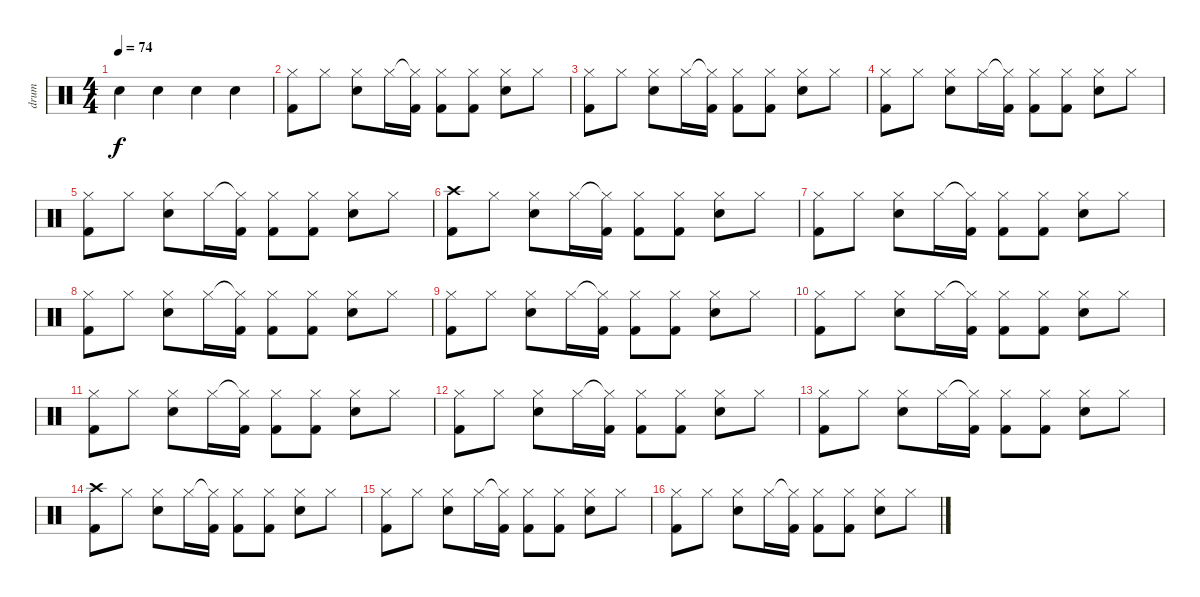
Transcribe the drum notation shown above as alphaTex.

\track ("drum" "drum") {instrument percussion}
\staff {score}
\articulation defaults
\ts (4 4)
\tempo 74
\clef neutral
\ks c "Snare (hit)".4{dy f} "Snare (hit)".4 "Snare (hit)".4 "Snare (hit)".4
|
("Hi-Hat (closed)" "Kick (hit) 2").8 "Hi-Hat (closed)".8 ("Hi-Hat (closed)" "Electric Snare (hit)").8 "Hi-Hat (closed)".16 ("Hi-Hat (closed)"{t} "Kick (hit) 2").16 ("Hi-Hat (closed)" "Kick (hit) 2").8 ("Hi-Hat (closed)" "Kick (hit) 2").8 ("Hi-Hat (closed)" "Electric Snare (hit)").8 "Hi-Hat (closed)".8 |
("Hi-Hat (closed)" "Kick (hit) 2").8 "Hi-Hat (closed)".8 ("Hi-Hat (closed)" "Electric Snare (hit)").8 "Hi-Hat (closed)".16 ("Hi-Hat (closed)"{t} "Kick (hit) 2").16 ("Hi-Hat (closed)" "Kick (hit) 2").8 ("Hi-Hat (closed)" "Kick (hit) 2").8 ("Hi-Hat (closed)" "Electric Snare (hit)").8 "Hi-Hat (closed)".8 |
("Hi-Hat (closed)" "Kick (hit) 2").8 "Hi-Hat (closed)".8 ("Hi-Hat (closed)" "Electric Snare (hit)").8 "Hi-Hat (closed)".16 ("Hi-Hat (closed)"{t} "Kick (hit) 2").16 ("Hi-Hat (closed)" "Kick (hit) 2").8 ("Hi-Hat (closed)" "Kick (hit) 2").8 ("Hi-Hat (closed)" "Electric Snare (hit)").8 "Hi-Hat (closed)".8 |
("Hi-Hat (closed)" "Kick (hit) 2").8 "Hi-Hat (closed)".8 ("Hi-Hat (closed)" "Electric Snare (hit)").8 "Hi-Hat (closed)".16 ("Hi-Hat (closed)"{t} "Kick (hit) 2").16 ("Hi-Hat (closed)" "Kick (hit) 2").8 ("Hi-Hat (closed)" "Kick (hit) 2").8 ("Hi-Hat (closed)" "Electric Snare (hit)").8 "Hi-Hat (closed)".8 |
("Crash high (hit)" "Kick (hit) 2").8 "Hi-Hat (closed)".8 ("Hi-Hat (closed)" "Electric Snare (hit)").8 "Hi-Hat (closed)".16 ("Hi-Hat (closed)"{t} "Kick (hit) 2").16 ("Hi-Hat (closed)" "Kick (hit) 2").8 ("Hi-Hat (closed)" "Kick (hit) 2").8 ("Hi-Hat (closed)" "Electric Snare (hit)").8 "Hi-Hat (closed)".8 |
("Hi-Hat (closed)" "Kick (hit) 2").8 "Hi-Hat (closed)".8 ("Hi-Hat (closed)" "Electric Snare (hit)").8 "Hi-Hat (closed)".16 ("Hi-Hat (closed)"{t} "Kick (hit) 2").16 ("Hi-Hat (closed)" "Kick (hit) 2").8 ("Hi-Hat (closed)" "Kick (hit) 2").8 ("Hi-Hat (closed)" "Electric Snare (hit)").8 "Hi-Hat (closed)".8 |
("Hi-Hat (closed)" "Kick (hit) 2").8 "Hi-Hat (closed)".8 ("Hi-Hat (closed)" "Electric Snare (hit)").8 "Hi-Hat (closed)".16 ("Hi-Hat (closed)"{t} "Kick (hit) 2").16 ("Hi-Hat (closed)" "Kick (hit) 2").8 ("Hi-Hat (closed)" "Kick (hit) 2").8 ("Hi-Hat (closed)" "Electric Snare (hit)").8 "Hi-Hat (closed)".8 |
("Hi-Hat (closed)" "Kick (hit) 2").8 "Hi-Hat (closed)".8 ("Hi-Hat (closed)" "Electric Snare (hit)").8 "Hi-Hat (closed)".16 ("Hi-Hat (closed)"{t} "Kick (hit) 2").16 ("Hi-Hat (closed)" "Kick (hit) 2").8 ("Hi-Hat (closed)" "Kick (hit) 2").8 ("Hi-Hat (closed)" "Electric Snare (hit)").8 "Hi-Hat (closed)".8 |
("Hi-Hat (closed)" "Kick (hit) 2").8 "Hi-Hat (closed)".8 ("Hi-Hat (closed)" "Electric Snare (hit)").8 "Hi-Hat (closed)".16 ("Hi-Hat (closed)"{t} "Kick (hit) 2").16 ("Hi-Hat (closed)" "Kick (hit) 2").8 ("Hi-Hat (closed)" "Kick (hit) 2").8 ("Hi-Hat (closed)" "Electric Snare (hit)").8 "Hi-Hat (closed)".8 |
("Hi-Hat (closed)" "Kick (hit) 2").8 "Hi-Hat (closed)".8 ("Hi-Hat (closed)" "Electric Snare (hit)").8 "Hi-Hat (closed)".16 ("Hi-Hat (closed)"{t} "Kick (hit) 2").16 ("Hi-Hat (closed)" "Kick (hit) 2").8 ("Hi-Hat (closed)" "Kick (hit) 2").8 ("Hi-Hat (closed)" "Electric Snare (hit)").8 "Hi-Hat (closed)".8 |
("Hi-Hat (closed)" "Kick (hit) 2").8 "Hi-Hat (closed)".8 ("Hi-Hat (closed)" "Electric Snare (hit)").8 "Hi-Hat (closed)".16 ("Hi-Hat (closed)"{t} "Kick (hit) 2").16 ("Hi-Hat (closed)" "Kick (hit) 2").8 ("Hi-Hat (closed)" "Kick (hit) 2").8 ("Hi-Hat (closed)" "Electric Snare (hit)").8 "Hi-Hat (closed)".8 |
("Hi-Hat (closed)" "Kick (hit) 2").8 "Hi-Hat (closed)".8 ("Hi-Hat (closed)" "Electric Snare (hit)").8 "Hi-Hat (closed)".16 ("Hi-Hat (closed)"{t} "Kick (hit) 2").16 ("Hi-Hat (closed)" "Kick (hit) 2").8 ("Hi-Hat (closed)" "Kick (hit) 2").8 ("Hi-Hat (closed)" "Electric Snare (hit)").8 "Hi-Hat (closed)".8 |
("Crash high (hit)" "Kick (hit) 2").8 "Hi-Hat (closed)".8 ("Hi-Hat (closed)" "Electric Snare (hit)").8 "Hi-Hat (closed)".16 ("Hi-Hat (closed)"{t} "Kick (hit) 2").16 ("Hi-Hat (closed)" "Kick (hit) 2").8 ("Hi-Hat (closed)" "Kick (hit) 2").8 ("Hi-Hat (closed)" "Electric Snare (hit)").8 "Hi-Hat (closed)".8 |
("Hi-Hat (closed)" "Kick (hit) 2").8 "Hi-Hat (closed)".8 ("Hi-Hat (closed)" "Electric Snare (hit)").8 "Hi-Hat (closed)".16 ("Hi-Hat (closed)"{t} "Kick (hit) 2").16 ("Hi-Hat (closed)" "Kick (hit) 2").8 ("Hi-Hat (closed)" "Kick (hit) 2").8 ("Hi-Hat (closed)" "Electric Snare (hit)").8 "Hi-Hat (closed)".8 |
("Hi-Hat (closed)" "Kick (hit) 2").8 "Hi-Hat (closed)".8 ("Hi-Hat (closed)" "Electric Snare (hit)").8 "Hi-Hat (closed)".16 ("Hi-Hat (closed)"{t} "Kick (hit) 2").16 ("Hi-Hat (closed)" "Kick (hit) 2").8 ("Hi-Hat (closed)" "Kick (hit) 2").8 ("Hi-Hat (closed)" "Electric Snare (hit)").8 "Hi-Hat (closed)".8
